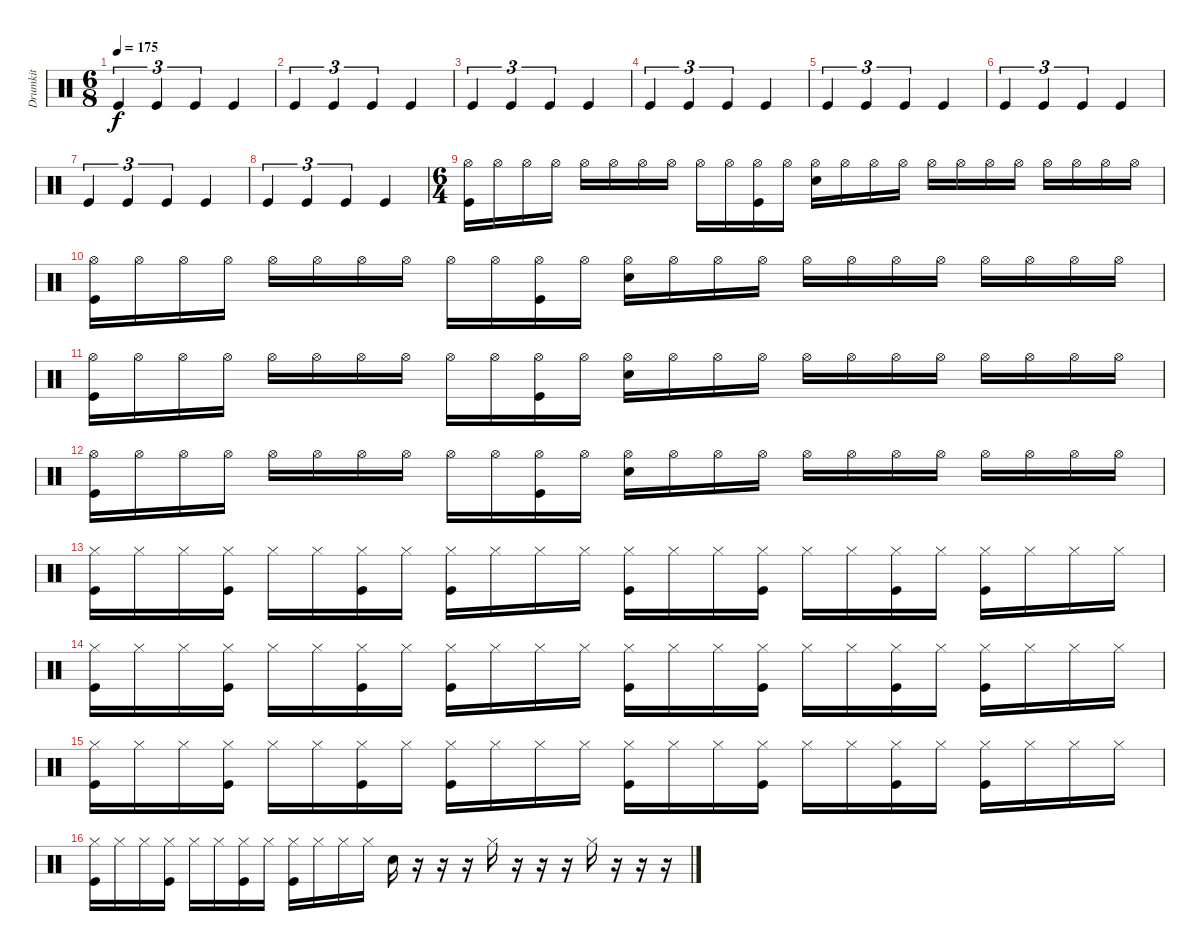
\track ("Drumkit" "Drumkit") {instrument percussion}
\staff {score}
\articulation defaults
\ts (6 8)
\tempo 175
\clef neutral
\ks c "Kick (hit)".4{tu (3 2) dy f} "Kick (hit)".4{tu (3 2)} "Kick (hit)".4{tu (3 2)} "Kick (hit)".4
|
"Kick (hit)".4{tu (3 2)} "Kick (hit)".4{tu (3 2)} "Kick (hit)".4{tu (3 2)} "Kick (hit)".4 |
"Kick (hit)".4{tu (3 2)} "Kick (hit)".4{tu (3 2)} "Kick (hit)".4{tu (3 2)} "Kick (hit)".4 |
"Kick (hit)".4{tu (3 2)} "Kick (hit)".4{tu (3 2)} "Kick (hit)".4{tu (3 2)} "Kick (hit)".4 |
"Kick (hit)".4{tu (3 2)} "Kick (hit)".4{tu (3 2)} "Kick (hit)".4{tu (3 2)} "Kick (hit)".4 |
"Kick (hit)".4{tu (3 2)} "Kick (hit)".4{tu (3 2)} "Kick (hit)".4{tu (3 2)} "Kick (hit)".4 |
"Kick (hit)".4{tu (3 2)} "Kick (hit)".4{tu (3 2)} "Kick (hit)".4{tu (3 2)} "Kick (hit)".4 |
"Kick (hit)".4{tu (3 2)} "Kick (hit)".4{tu (3 2)} "Kick (hit)".4{tu (3 2)} "Kick (hit)".4 |
\ts (6 4)
("Hi-Hat (open)" "Kick (hit)").16 "Hi-Hat (open)".16 "Hi-Hat (open)".16 "Hi-Hat (open)".16 "Hi-Hat (open)".16 "Hi-Hat (open)".16 "Hi-Hat (open)".16 "Hi-Hat (open)".16 "Hi-Hat (open)".16 "Hi-Hat (open)".16 ("Hi-Hat (open)" "Kick (hit)").16 "Hi-Hat (open)".16 ("Hi-Hat (open)" "Snare (hit) 2").16 "Hi-Hat (open)".16 "Hi-Hat (open)".16 "Hi-Hat (open)".16 "Hi-Hat (open)".16 "Hi-Hat (open)".16 "Hi-Hat (open)".16 "Hi-Hat (open)".16 "Hi-Hat (open)".16 "Hi-Hat (open)".16 "Hi-Hat (open)".16 "Hi-Hat (open)".16 |
("Hi-Hat (open)" "Kick (hit)").16 "Hi-Hat (open)".16 "Hi-Hat (open)".16 "Hi-Hat (open)".16 "Hi-Hat (open)".16 "Hi-Hat (open)".16 "Hi-Hat (open)".16 "Hi-Hat (open)".16 "Hi-Hat (open)".16 "Hi-Hat (open)".16 ("Hi-Hat (open)" "Kick (hit)").16 "Hi-Hat (open)".16 ("Hi-Hat (open)" "Snare (hit) 2").16 "Hi-Hat (open)".16 "Hi-Hat (open)".16 "Hi-Hat (open)".16 "Hi-Hat (open)".16 "Hi-Hat (open)".16 "Hi-Hat (open)".16 "Hi-Hat (open)".16 "Hi-Hat (open)".16 "Hi-Hat (open)".16 "Hi-Hat (open)".16 "Hi-Hat (open)".16 |
("Hi-Hat (open)" "Kick (hit)").16 "Hi-Hat (open)".16 "Hi-Hat (open)".16 "Hi-Hat (open)".16 "Hi-Hat (open)".16 "Hi-Hat (open)".16 "Hi-Hat (open)".16 "Hi-Hat (open)".16 "Hi-Hat (open)".16 "Hi-Hat (open)".16 ("Hi-Hat (open)" "Kick (hit)").16 "Hi-Hat (open)".16 ("Hi-Hat (open)" "Snare (hit) 2").16 "Hi-Hat (open)".16 "Hi-Hat (open)".16 "Hi-Hat (open)".16 "Hi-Hat (open)".16 "Hi-Hat (open)".16 "Hi-Hat (open)".16 "Hi-Hat (open)".16 "Hi-Hat (open)".16 "Hi-Hat (open)".16 "Hi-Hat (open)".16 "Hi-Hat (open)".16 |
("Hi-Hat (open)" "Kick (hit)").16 "Hi-Hat (open)".16 "Hi-Hat (open)".16 "Hi-Hat (open)".16 "Hi-Hat (open)".16 "Hi-Hat (open)".16 "Hi-Hat (open)".16 "Hi-Hat (open)".16 "Hi-Hat (open)".16 "Hi-Hat (open)".16 ("Hi-Hat (open)" "Kick (hit)").16 "Hi-Hat (open)".16 ("Hi-Hat (open)" "Snare (hit) 2").16 "Hi-Hat (open)".16 "Hi-Hat (open)".16 "Hi-Hat (open)".16 "Hi-Hat (open)".16 "Hi-Hat (open)".16 "Hi-Hat (open)".16 "Hi-Hat (open)".16 "Hi-Hat (open)".16 "Hi-Hat (open)".16 "Hi-Hat (open)".16 "Hi-Hat (open)".16 |
("Hi-Hat (closed)" "Kick (hit)").16 "Hi-Hat (closed)".16 "Hi-Hat (closed)".16 ("Hi-Hat (closed)" "Kick (hit)").16 "Hi-Hat (closed)".16 "Hi-Hat (closed)".16 ("Hi-Hat (closed)" "Kick (hit)").16 "Hi-Hat (closed)".16 ("Hi-Hat (closed)" "Kick (hit)").16 "Hi-Hat (closed)".16 "Hi-Hat (closed)".16 "Hi-Hat (closed)".16 ("Hi-Hat (closed)" "Kick (hit)").16 "Hi-Hat (closed)".16 "Hi-Hat (closed)".16 ("Hi-Hat (closed)" "Kick (hit)").16 "Hi-Hat (closed)".16 "Hi-Hat (closed)".16 ("Hi-Hat (closed)" "Kick (hit)").16 "Hi-Hat (closed)".16 ("Hi-Hat (closed)" "Kick (hit)").16 "Hi-Hat (closed)".16 "Hi-Hat (closed)".16 "Hi-Hat (closed)".16 |
("Hi-Hat (closed)" "Kick (hit)").16 "Hi-Hat (closed)".16 "Hi-Hat (closed)".16 ("Hi-Hat (closed)" "Kick (hit)").16 "Hi-Hat (closed)".16 "Hi-Hat (closed)".16 ("Hi-Hat (closed)" "Kick (hit)").16 "Hi-Hat (closed)".16 ("Hi-Hat (closed)" "Kick (hit)").16 "Hi-Hat (closed)".16 "Hi-Hat (closed)".16 "Hi-Hat (closed)".16 ("Hi-Hat (closed)" "Kick (hit)").16 "Hi-Hat (closed)".16 "Hi-Hat (closed)".16 ("Hi-Hat (closed)" "Kick (hit)").16 "Hi-Hat (closed)".16 "Hi-Hat (closed)".16 ("Hi-Hat (closed)" "Kick (hit)").16 "Hi-Hat (closed)".16 ("Hi-Hat (closed)" "Kick (hit)").16 "Hi-Hat (closed)".16 "Hi-Hat (closed)".16 "Hi-Hat (closed)".16 |
("Hi-Hat (closed)" "Kick (hit)").16 "Hi-Hat (closed)".16 "Hi-Hat (closed)".16 ("Hi-Hat (closed)" "Kick (hit)").16 "Hi-Hat (closed)".16 "Hi-Hat (closed)".16 ("Hi-Hat (closed)" "Kick (hit)").16 "Hi-Hat (closed)".16 ("Hi-Hat (closed)" "Kick (hit)").16 "Hi-Hat (closed)".16 "Hi-Hat (closed)".16 "Hi-Hat (closed)".16 ("Hi-Hat (closed)" "Kick (hit)").16 "Hi-Hat (closed)".16 "Hi-Hat (closed)".16 ("Hi-Hat (closed)" "Kick (hit)").16 "Hi-Hat (closed)".16 "Hi-Hat (closed)".16 ("Hi-Hat (closed)" "Kick (hit)").16 "Hi-Hat (closed)".16 ("Hi-Hat (closed)" "Kick (hit)").16 "Hi-Hat (closed)".16 "Hi-Hat (closed)".16 "Hi-Hat (closed)".16 |
("Hi-Hat (closed)" "Kick (hit)").16 "Hi-Hat (closed)".16 "Hi-Hat (closed)".16 ("Hi-Hat (closed)" "Kick (hit)").16 "Hi-Hat (closed)".16 "Hi-Hat (closed)".16 ("Hi-Hat (closed)" "Kick (hit)").16 "Hi-Hat (closed)".16 ("Hi-Hat (closed)" "Kick (hit)").16 "Hi-Hat (closed)".16 "Hi-Hat (closed)".16 "Hi-Hat (closed)".16 "Snare (hit) 2".16 r.16 r.16 r.16 "Hi-Hat (closed)".16 r.16 r.16 r.16 "Hi-Hat (closed)".16 r.16 r.16 r.16
